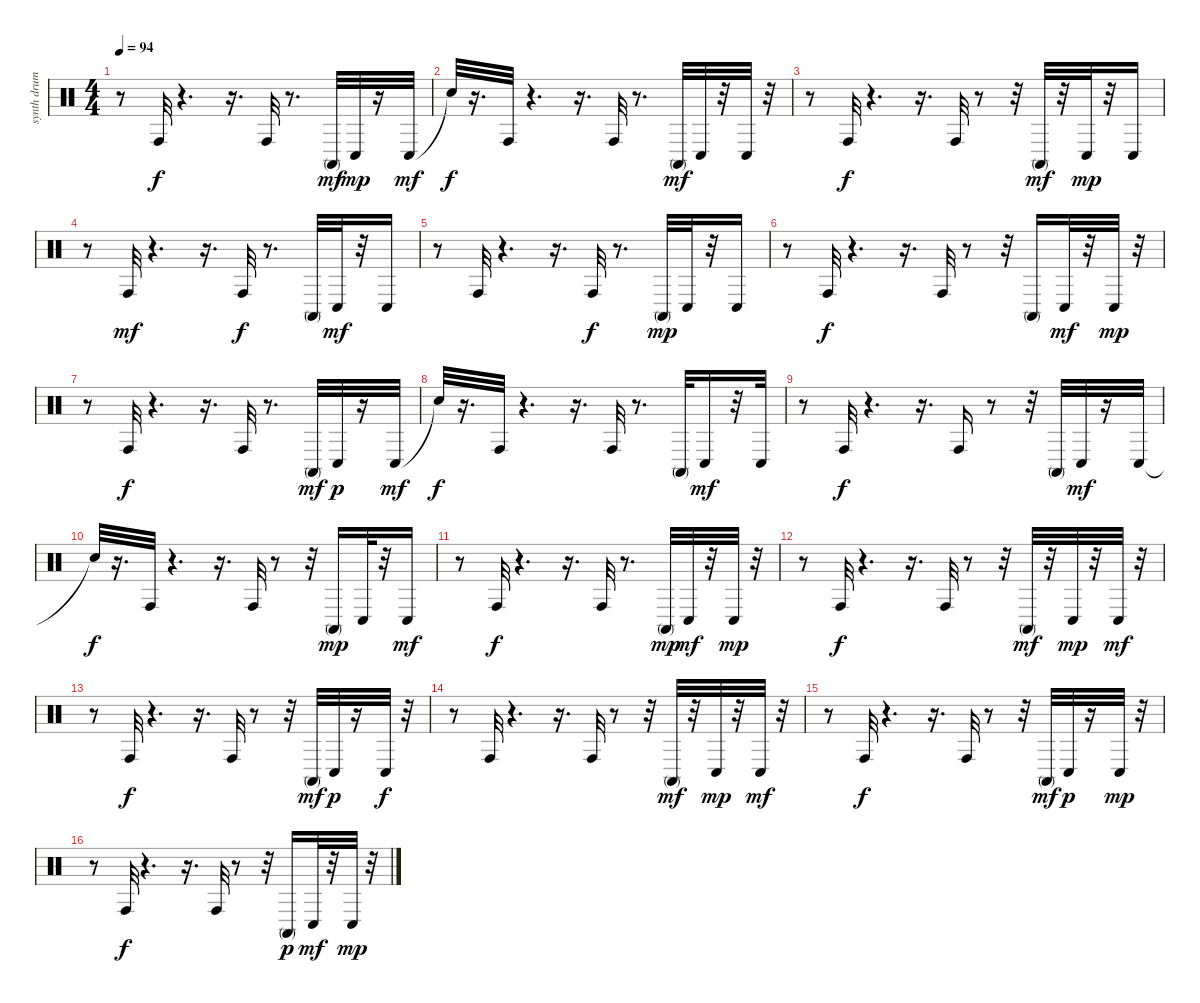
\track ("synth drum" "synth drum") {instrument percussion}
\staff {score}
\articulation defaults
\ts (4 4)
\tempo 94
\clef neutral
\ks c
r.8{dy mp} "Conga high (hit)".32{dy f} r.4{d} r.16{d} "Conga high (hit)".32 r.8{d} "Conga high (mute)".32{dy mf} "Conga low (hit)".32{dy mp} r.16 "Conga low (hit)".32{dy mf} |
"Snare (hit)"{t}.32{dy f} r.16{d} "Conga high (hit)".32 r.4{d} r.16{d} "Conga high (hit)".32 r.8{d} "Conga high (mute)".32{dy mf} "Conga low (hit)".32 r.32 "Conga low (hit)".32 r.32 |
r.8 "Conga high (hit)".32{dy f} r.4{d} r.16{d} "Conga high (hit)".32 r.8 r.32 "Conga high (mute)".32{dy mf} r.32 "Conga low (hit)".32{dy mp} r.32 "Conga low (hit)".16 |
r.8 "Conga high (hit)".32{dy mf} r.4{d} r.16{d} "Conga high (hit)".32{dy f} r.8{d} "Conga high (mute)".32 "Conga low (hit)".32{dy mf} r.32 "Conga low (hit)".16 |
r.8 "Conga high (hit)".32 r.4{d} r.16{d} "Conga high (hit)".32{dy f} r.8{d} "Conga high (mute)".32{dy mp} "Conga low (hit)".32 r.32 "Conga low (hit)".16 |
r.8 "Conga high (hit)".32{dy f} r.4{d} r.16{d} "Conga high (hit)".32 r.8 r.32 "Conga high (mute)".16 "Conga low (hit)".32{dy mf} r.32 "Conga low (hit)".32{dy mp} r.32 |
r.8 "Conga high (hit)".32{dy f} r.4{d} r.16{d} "Conga high (hit)".32 r.8{d} "Conga high (mute)".32{dy mf} "Conga low (hit)".32{dy p} r.16 "Conga low (hit)".32{dy mf} |
"Snare (hit)"{t}.32{dy f} r.16{d} "Conga high (hit)".32 r.4{d} r.16{d} "Conga high (hit)".32 r.8{d} "Conga high (mute)".32 "Conga low (hit)".16{dy mf} r.32 "Conga low (hit)".32 |
r.8 "Conga high (hit)".32{dy f} r.4{d} r.16{d} "Conga high (hit)".16 r.8 r.32 "Conga high (mute)".32 "Conga low (hit)".32{dy mf} r.16 "Conga low (hit)".32 |
"Snare (hit)"{t}.32{dy f} r.16{d} "Conga high (hit)".32 r.4{d} r.16{d} "Conga high (hit)".32 r.8 r.32 "Conga high (mute)".16{dy mp} "Conga low (hit)".32 r.32 "Conga low (hit)".16{dy mf} |
r.8 "Conga high (hit)".32{dy f} r.4{d} r.16{d} "Conga high (hit)".32 r.8{d} "Conga high (mute)".32{dy mp} "Conga low (hit)".32{dy mf} r.32 "Conga low (hit)".32{dy mp} r.32 |
r.8 "Conga high (hit)".32{dy f} r.4{d} r.16{d} "Conga high (hit)".32 r.8 r.32 "Conga high (mute)".32{dy mf} r.32 "Conga low (hit)".32{dy mp} r.32 "Conga low (hit)".32{dy mf} r.32 |
r.8 "Conga high (hit)".32{dy f} r.4{d} r.16{d} "Conga high (hit)".32 r.8 r.32 "Conga high (mute)".32{dy mf} "Conga low (hit)".32{dy p} r.16 "Conga low (hit)".32{dy f} r.32 |
r.8 "Conga high (hit)".32 r.4{d} r.16{d} "Conga high (hit)".32 r.8 r.32 "Conga high (mute)".32{dy mf} r.32 "Conga low (hit)".32{dy mp} r.32 "Conga low (hit)".32{dy mf} r.32 |
r.8 "Conga high (hit)".32{dy f} r.4{d} r.16{d} "Conga high (hit)".32 r.8 r.32 "Conga high (mute)".32{dy mf} "Conga low (hit)".32{dy p} r.16 "Conga low (hit)".32{dy mp} r.32 |
r.8 "Conga high (hit)".32{dy f} r.4{d} r.16{d} "Conga high (hit)".32 r.8 r.32 "Conga high (mute)".16{dy p} "Conga low (hit)".32{dy mf} r.32 "Conga low (hit)".32{dy mp} r.32
